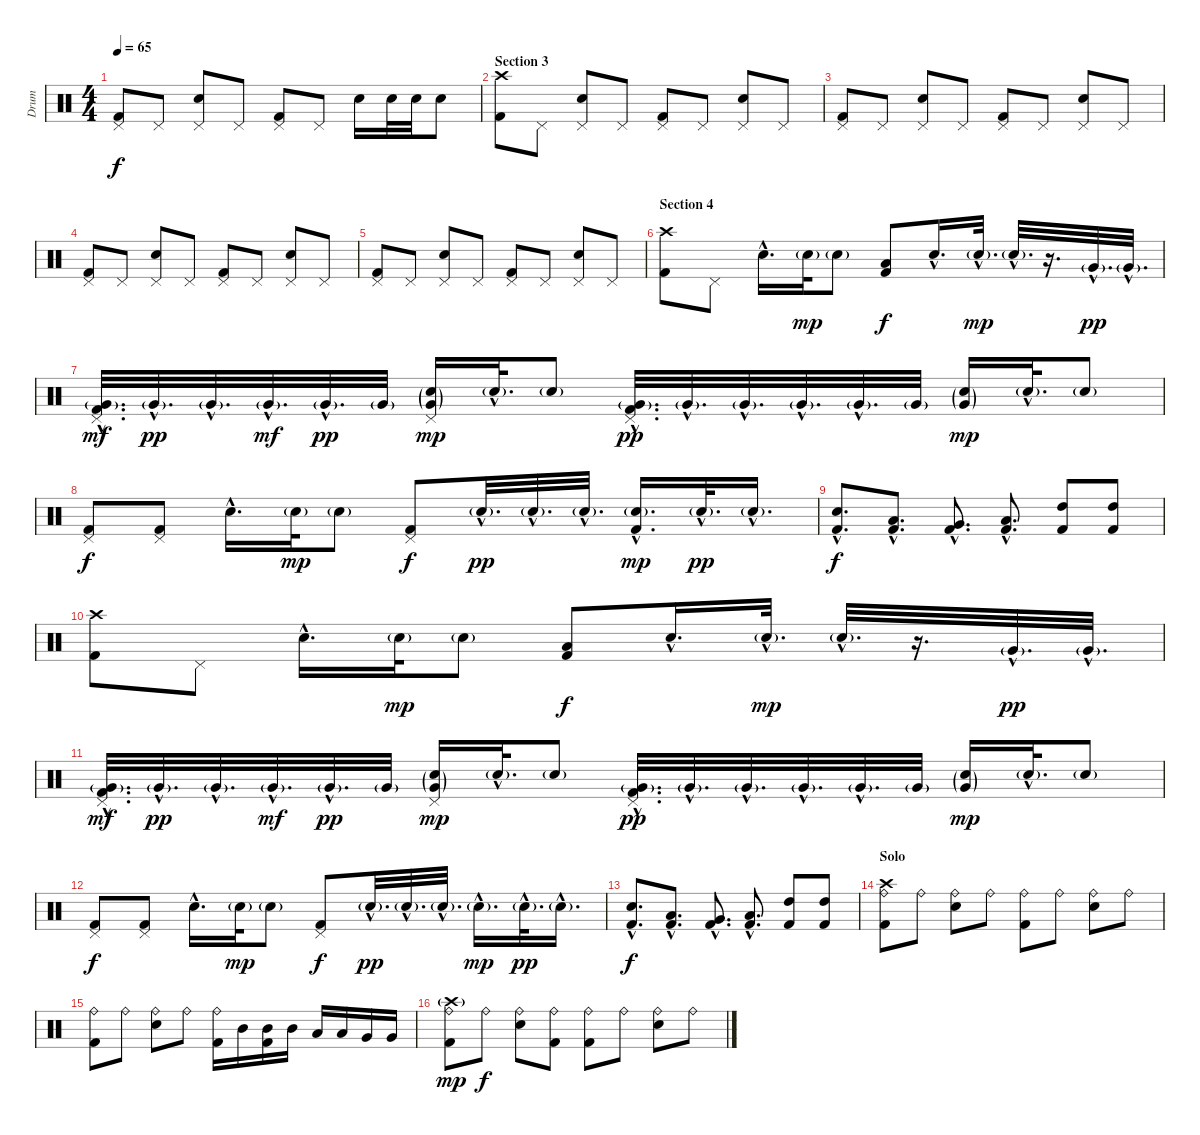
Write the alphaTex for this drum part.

\track ("Drum" "Drum") {instrument percussion}
\staff {score}
\articulation defaults
\ts (4 4)
\tempo 65
\clef neutral
\ks c
("Pedal Hi-Hat (hit)" "Kick (hit) 2").8{dy f} "Pedal Hi-Hat (hit)".8 ("Pedal Hi-Hat (hit)" "Snare (hit) 2").8 "Pedal Hi-Hat (hit)".8 ("Pedal Hi-Hat (hit)" "Kick (hit) 2").8 "Pedal Hi-Hat (hit)".8 "Snare (hit) 2".16 "Snare (hit) 2".32 "Snare (hit) 2".32 "Snare (hit) 2".8 |
\section ("" "Section 3")
("Crash high (hit)" "Kick (hit) 2").8 "Pedal Hi-Hat (hit)".8 ("Pedal Hi-Hat (hit)" "Snare (hit) 2").8 "Pedal Hi-Hat (hit)".8 ("Pedal Hi-Hat (hit)" "Kick (hit) 2").8 "Pedal Hi-Hat (hit)".8 ("Pedal Hi-Hat (hit)" "Snare (hit) 2").8 "Pedal Hi-Hat (hit)".8 |
("Pedal Hi-Hat (hit)" "Kick (hit) 2").8 "Pedal Hi-Hat (hit)".8 ("Pedal Hi-Hat (hit)" "Snare (hit) 2").8 "Pedal Hi-Hat (hit)".8 ("Pedal Hi-Hat (hit)" "Kick (hit) 2").8 "Pedal Hi-Hat (hit)".8 ("Pedal Hi-Hat (hit)" "Snare (hit) 2").8 "Pedal Hi-Hat (hit)".8 |
("Pedal Hi-Hat (hit)" "Kick (hit) 2").8 "Pedal Hi-Hat (hit)".8 ("Pedal Hi-Hat (hit)" "Snare (hit) 2").8 "Pedal Hi-Hat (hit)".8 ("Pedal Hi-Hat (hit)" "Kick (hit) 2").8 "Pedal Hi-Hat (hit)".8 ("Pedal Hi-Hat (hit)" "Snare (hit) 2").8 "Pedal Hi-Hat (hit)".8 |
("Pedal Hi-Hat (hit)" "Kick (hit) 2").8 "Pedal Hi-Hat (hit)".8 ("Pedal Hi-Hat (hit)" "Snare (hit) 2").8 "Pedal Hi-Hat (hit)".8 ("Pedal Hi-Hat (hit)" "Kick (hit) 2").8 "Pedal Hi-Hat (hit)".8 ("Pedal Hi-Hat (hit)" "Snare (hit) 2").8 "Pedal Hi-Hat (hit)".8 |
\section ("" "Section 4")
("Crash high (hit)" "Kick (hit) 2").8 "Pedal Hi-Hat (hit)".8 "Snare (hit) 2"{hac}.16{d} "Snare (hit) 2"{g}.32{dy mp} "Snare (hit) 2"{g}.8 ("Low Tom (hit)" "Kick (hit) 2").8{dy f} "Snare (hit) 2"{hac}.16{d} "Snare (hit) 2"{g hac}.32{d dy mp} "Snare (hit) 2"{g hac}.32{d} r.16{d} "Very Low Tom (hit)"{g hac}.32{d dy pp} "Very Low Tom (hit)"{g hac}.32{d} |
("Pedal Hi-Hat (hit)"{hac} "Very Low Tom (hit)"{g hac} "Kick (hit) 2"{hac}).32{d dy mf} "Very Low Tom (hit)"{g hac}.32{d dy pp} "Very Low Tom (hit)"{g hac}.32{d} "Very Low Tom (hit)"{g hac}.32{d dy mf} "Very Low Tom (hit)"{g hac}.32{d dy pp} "Very Low Tom (hit)"{g}.32 ("Pedal Hi-Hat (hit)" "Very Low Tom (hit)"{g} "Snare (hit) 2"{g}).16{dy mp} "Snare (hit) 2"{g hac}.32{d} "Snare (hit) 2"{g}.8 ("Pedal Hi-Hat (hit)"{hac} "Very Low Tom (hit)"{g hac} "Kick (hit) 2"{hac}).32{d dy pp} "Very Low Tom (hit)"{g hac}.32{d} "Very Low Tom (hit)"{g hac}.32{d} "Very Low Tom (hit)"{g hac}.32{d} "Very Low Tom (hit)"{g hac}.32{d} "Very Low Tom (hit)"{g}.32 ("Very Low Tom (hit)"{g} "Snare (hit) 2"{g}).16{dy mp} "Snare (hit) 2"{g hac}.32{d} "Snare (hit) 2"{g}.8 |
("Pedal Hi-Hat (hit)" "Kick (hit) 2").8{dy f} ("Pedal Hi-Hat (hit)" "Kick (hit) 2").8 "Snare (hit) 2"{hac}.16{d} "Snare (hit) 2"{g}.32{dy mp} "Snare (hit) 2"{g}.8 ("Pedal Hi-Hat (hit)" "Kick (hit) 2").8{dy f} "Snare (hit) 2"{g hac}.32{d dy pp} "Snare (hit) 2"{g hac}.32{d} "Snare (hit) 2"{g hac}.32{d} ("Snare (hit) 2"{g hac} "Kick (hit) 2"{hac}).16{d dy mp} "Snare (hit) 2"{g hac}.32{d dy pp} "Snare (hit) 2"{g hac}.16{d} |
("Snare (hit) 2"{hac} "Kick (hit) 2"{hac}).8{d dy f} ("Low Tom (hit)"{hac} "Kick (hit) 2"{hac}).8{d} ("Very Low Tom (hit)"{hac} "Kick (hit) 2"{hac}).8{d} ("Low Floor Tom (hit)"{hac} "Kick (hit) 2"{hac}).8{d} ("High Tom (hit)" "Kick (hit) 2").8 ("High Tom (hit)" "Kick (hit) 2").8 |
("Crash high (hit)" "Kick (hit) 2").8 "Pedal Hi-Hat (hit)".8 "Snare (hit) 2"{hac}.16{d} "Snare (hit) 2"{g}.32{dy mp} "Snare (hit) 2"{g}.8 ("Low Tom (hit)" "Kick (hit) 2").8{dy f} "Snare (hit) 2"{hac}.16{d} "Snare (hit) 2"{g hac}.32{d dy mp} "Snare (hit) 2"{g hac}.32{d} r.16{d} "Very Low Tom (hit)"{g hac}.32{d dy pp} "Very Low Tom (hit)"{g hac}.32{d} |
("Pedal Hi-Hat (hit)"{hac} "Very Low Tom (hit)"{g hac} "Kick (hit) 2"{hac}).32{d dy mf} "Very Low Tom (hit)"{g hac}.32{d dy pp} "Very Low Tom (hit)"{g hac}.32{d} "Very Low Tom (hit)"{g hac}.32{d dy mf} "Very Low Tom (hit)"{g hac}.32{d dy pp} "Very Low Tom (hit)"{g}.32 ("Pedal Hi-Hat (hit)" "Very Low Tom (hit)"{g} "Snare (hit) 2"{g}).16{dy mp} "Snare (hit) 2"{g hac}.32{d} "Snare (hit) 2"{g}.8 ("Pedal Hi-Hat (hit)"{hac} "Very Low Tom (hit)"{g hac} "Kick (hit) 2"{hac}).32{d dy pp} "Very Low Tom (hit)"{g hac}.32{d} "Very Low Tom (hit)"{g hac}.32{d} "Very Low Tom (hit)"{g hac}.32{d} "Very Low Tom (hit)"{g hac}.32{d} "Very Low Tom (hit)"{g}.32 ("Very Low Tom (hit)"{g} "Snare (hit) 2"{g}).16{dy mp} "Snare (hit) 2"{g hac}.32{d} "Snare (hit) 2"{g}.8 |
("Pedal Hi-Hat (hit)" "Kick (hit) 2").8{dy f} ("Pedal Hi-Hat (hit)" "Kick (hit) 2").8 "Snare (hit) 2"{hac}.16{d} "Snare (hit) 2"{g}.32{dy mp} "Snare (hit) 2"{g}.8 ("Pedal Hi-Hat (hit)" "Kick (hit) 2").8{dy f} "Snare (hit) 2"{g hac}.32{d dy pp} "Snare (hit) 2"{g hac}.32{d} "Snare (hit) 2"{g hac}.32{d} "Snare (hit) 2"{g hac}.16{d dy mp} "Snare (hit) 2"{g hac}.32{d dy pp} "Snare (hit) 2"{g hac}.16{d} |
("Snare (hit) 2"{hac} "Kick (hit) 2"{hac}).8{d dy f} ("Low Tom (hit)"{hac} "Kick (hit) 2"{hac}).8{d} ("Very Low Tom (hit)"{hac} "Kick (hit) 2"{hac}).8{d} ("Low Floor Tom (hit)"{hac} "Kick (hit) 2"{hac}).8{d} ("High Tom (hit)" "Kick (hit) 2").8 ("High Tom (hit)" "Kick (hit) 2").8 |
\section ("" "Solo")
("Crash high (hit)" "Ride (bell)" "Kick (hit) 2").8 "Ride (bell)".8 ("Ride (bell)" "Snare (hit) 2").8 "Ride (bell)".8 ("Ride (bell)" "Kick (hit) 2").8 "Ride (bell)".8 ("Ride (bell)" "Snare (hit) 2").8 "Ride (bell)".8 |
("Ride (bell)" "Kick (hit) 2").8 "Ride (bell)".8 ("Ride (bell)" "Snare (hit) 2").8 "Ride (bell)".8 ("Ride (bell)" "Kick (hit) 2").16 "Mid Tom (hit)".16 ("Mid Tom (hit)" "Kick (hit) 2").16 "Mid Tom (hit)".16 "Low Tom (hit)".16 "Low Tom (hit)".16 "Very Low Tom (hit)".16 "Very Low Tom (hit)".16 |
("Crash high (hit)"{g} "Ride (bell)" "Kick (hit) 2").8{dy mp} "Ride (bell)".8{dy f} ("Ride (bell)" "Snare (hit) 2").8 ("Ride (bell)" "Kick (hit) 2").8 ("Ride (bell)" "Kick (hit) 2").8 "Ride (bell)".8 ("Ride (bell)" "Snare (hit) 2").8 "Ride (bell)".8
